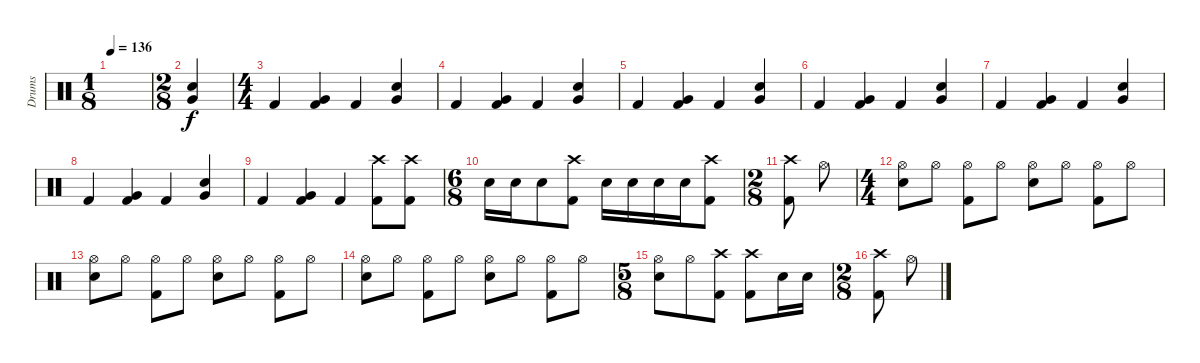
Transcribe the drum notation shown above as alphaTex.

\track ("Drums" "Drums") {instrument percussion}
\staff {score}
\articulation defaults
\ts (1 8)
\tempo 136
\tempo 90
\tempo 136
\clef neutral
\ks c
|
\ts (2 8)
("Very Low Tom (hit)" "Snare (hit) 2").4 |
\ts (4 4)
"Kick (hit) 2".4 ("Very Low Tom (hit)" "Kick (hit) 2").4 "Kick (hit) 2".4 ("Very Low Tom (hit)" "Snare (hit) 2").4 |
"Kick (hit) 2".4 ("Very Low Tom (hit)" "Kick (hit) 2").4 "Kick (hit) 2".4 ("Very Low Tom (hit)" "Snare (hit) 2").4 |
"Kick (hit) 2".4 ("Very Low Tom (hit)" "Kick (hit) 2").4 "Kick (hit) 2".4 ("Very Low Tom (hit)" "Snare (hit) 2").4 |
"Kick (hit) 2".4 ("Very Low Tom (hit)" "Kick (hit) 2").4 "Kick (hit) 2".4 ("Very Low Tom (hit)" "Snare (hit) 2").4 |
"Kick (hit) 2".4 ("Very Low Tom (hit)" "Kick (hit) 2").4 "Kick (hit) 2".4 ("Very Low Tom (hit)" "Snare (hit) 2").4 |
"Kick (hit) 2".4 ("Very Low Tom (hit)" "Kick (hit) 2").4 "Kick (hit) 2".4 ("Very Low Tom (hit)" "Snare (hit) 2").4 |
"Kick (hit) 2".4 ("Very Low Tom (hit)" "Kick (hit) 2").4 "Kick (hit) 2".4 ("Crash high (hit)" "Kick (hit) 2").8 ("Crash high (hit)" "Kick (hit) 2").8 |
\ts (6 8)
"Snare (hit) 2".16 "Snare (hit) 2".16 "Snare (hit) 2".8 ("Crash high (hit)" "Kick (hit) 2").8 "Snare (hit) 2".16 "Snare (hit) 2".16 "Snare (hit) 2".16 "Snare (hit) 2".16 ("Crash high (hit)" "Kick (hit) 2").8 |
\ts (2 8)
("Crash high (hit)" "Kick (hit) 2").8 "Hi-Hat (open)".8 |
\ts (4 4)
("Hi-Hat (open)" "Snare (hit) 2").8 "Hi-Hat (open)".8 ("Hi-Hat (open)" "Kick (hit) 2").8 "Hi-Hat (open)".8 ("Hi-Hat (open)" "Snare (hit) 2").8 "Hi-Hat (open)".8 ("Hi-Hat (open)" "Kick (hit) 2").8 "Hi-Hat (open)".8 |
("Hi-Hat (open)" "Snare (hit) 2").8 "Hi-Hat (open)".8 ("Hi-Hat (open)" "Kick (hit) 2").8 "Hi-Hat (open)".8 ("Hi-Hat (open)" "Snare (hit) 2").8 "Hi-Hat (open)".8 ("Hi-Hat (open)" "Kick (hit) 2").8 "Hi-Hat (open)".8 |
("Hi-Hat (open)" "Snare (hit) 2").8 "Hi-Hat (open)".8 ("Hi-Hat (open)" "Kick (hit) 2").8 "Hi-Hat (open)".8 ("Hi-Hat (open)" "Snare (hit) 2").8 "Hi-Hat (open)".8 ("Hi-Hat (open)" "Kick (hit) 2").8 "Hi-Hat (open)".8 |
\ts (5 8)
("Hi-Hat (open)" "Snare (hit) 2").8 "Hi-Hat (open)".8 ("Crash high (hit)" "Kick (hit) 2").8 ("Crash high (hit)" "Kick (hit) 2").8 "Snare (hit) 2".16 "Snare (hit) 2".16 |
\ts (2 8)
("Crash high (hit)" "Kick (hit) 2").8 "Hi-Hat (open)".8
